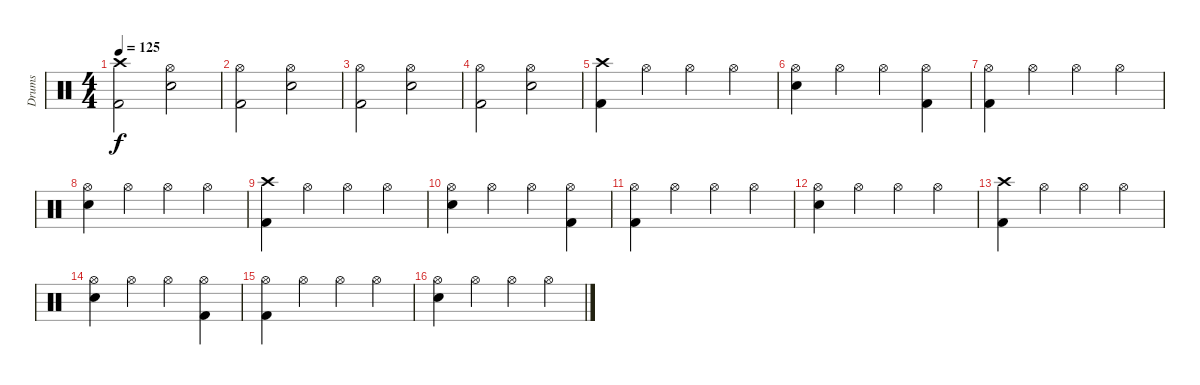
\track ("Drums" "Drums") {instrument percussion}
\staff {score}
\articulation defaults
\ts (4 4)
\tempo 125
\clef neutral
\ks c
("Crash high (hit)" "Kick (hit) 2").2{dy f} ("Hi-Hat (open)" "Snare (hit) 2").2 |
("Hi-Hat (open)" "Kick (hit) 2").2 ("Hi-Hat (open)" "Snare (hit) 2").2 |
("Hi-Hat (open)" "Kick (hit) 2").2 ("Hi-Hat (open)" "Snare (hit) 2").2 |
("Hi-Hat (open)" "Kick (hit) 2").2 ("Hi-Hat (open)" "Snare (hit) 2").2 |
("Crash high (hit)" "Kick (hit) 2").4 "Hi-Hat (open)".4 "Hi-Hat (open)".4 "Hi-Hat (open)".4 |
("Hi-Hat (open)" "Snare (hit) 2").4 "Hi-Hat (open)".4 "Hi-Hat (open)".4 ("Hi-Hat (open)" "Kick (hit) 2").4 |
("Hi-Hat (open)" "Kick (hit) 2").4 "Hi-Hat (open)".4 "Hi-Hat (open)".4 "Hi-Hat (open)".4 |
("Hi-Hat (open)" "Snare (hit) 2").4 "Hi-Hat (open)".4 "Hi-Hat (open)".4 "Hi-Hat (open)".4 |
("Crash high (hit)" "Kick (hit) 2").4 "Hi-Hat (open)".4 "Hi-Hat (open)".4 "Hi-Hat (open)".4 |
("Hi-Hat (open)" "Snare (hit) 2").4 "Hi-Hat (open)".4 "Hi-Hat (open)".4 ("Hi-Hat (open)" "Kick (hit) 2").4 |
("Hi-Hat (open)" "Kick (hit) 2").4 "Hi-Hat (open)".4 "Hi-Hat (open)".4 "Hi-Hat (open)".4 |
("Hi-Hat (open)" "Snare (hit) 2").4 "Hi-Hat (open)".4 "Hi-Hat (open)".4 "Hi-Hat (open)".4 |
("Crash high (hit)" "Kick (hit) 2").4 "Hi-Hat (open)".4 "Hi-Hat (open)".4 "Hi-Hat (open)".4 |
("Hi-Hat (open)" "Snare (hit) 2").4 "Hi-Hat (open)".4 "Hi-Hat (open)".4 ("Hi-Hat (open)" "Kick (hit) 2").4 |
("Hi-Hat (open)" "Kick (hit) 2").4 "Hi-Hat (open)".4 "Hi-Hat (open)".4 "Hi-Hat (open)".4 |
("Hi-Hat (open)" "Snare (hit) 2").4 "Hi-Hat (open)".4 "Hi-Hat (open)".4 "Hi-Hat (open)".4
